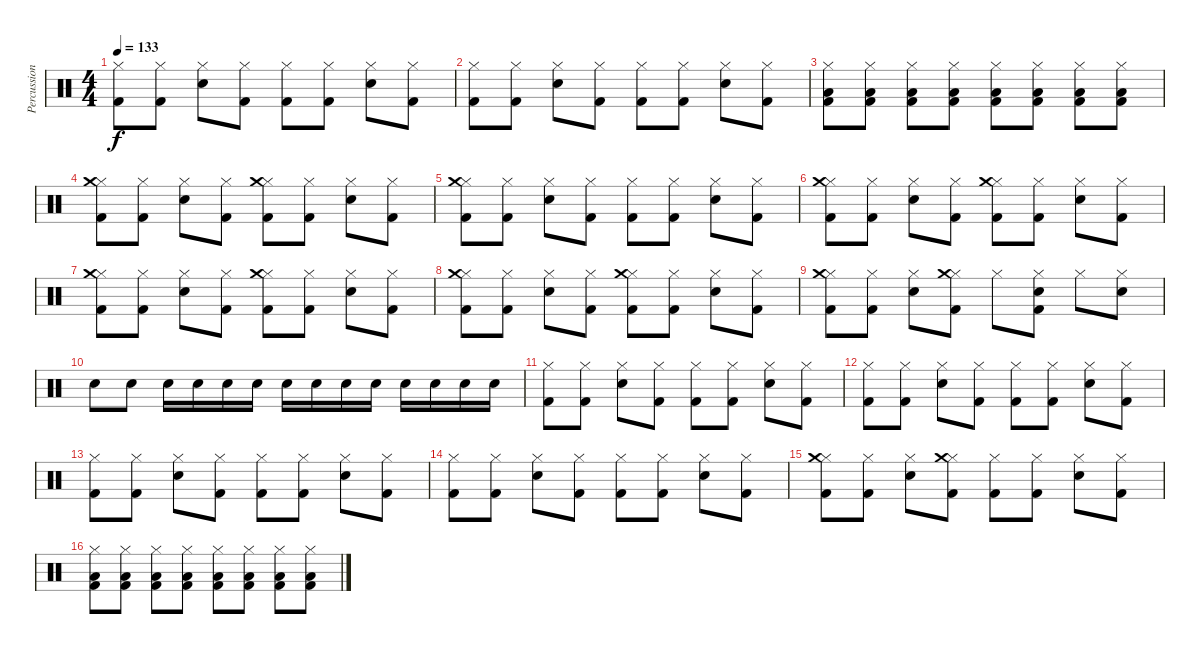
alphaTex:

\track ("Percussion" "Percussion") {instrument percussion}
\staff {score}
\articulation defaults
\ts (4 4)
\tempo 133
\clef neutral
\ks c
("Hi-Hat (closed)" "Kick (hit) 2").8{dy f} ("Hi-Hat (closed)" "Kick (hit) 2").8 ("Electric Snare (hit)" "Hi-Hat (closed)").8 ("Hi-Hat (closed)" "Kick (hit) 2").8 ("Hi-Hat (closed)" "Kick (hit) 2").8 ("Hi-Hat (closed)" "Kick (hit) 2").8 ("Electric Snare (hit)" "Hi-Hat (closed)").8 ("Hi-Hat (closed)" "Kick (hit) 2").8 |
("Hi-Hat (closed)" "Kick (hit) 2").8 ("Hi-Hat (closed)" "Kick (hit) 2").8 ("Electric Snare (hit)" "Hi-Hat (closed)").8 ("Hi-Hat (closed)" "Kick (hit) 2").8 ("Hi-Hat (closed)" "Kick (hit) 2").8 ("Hi-Hat (closed)" "Kick (hit) 2").8 ("Electric Snare (hit)" "Hi-Hat (closed)").8 ("Hi-Hat (closed)" "Kick (hit) 2").8 |
("Hi-Hat (closed)" "Kick (hit) 2" "Low Floor Tom (hit)").8 ("Hi-Hat (closed)" "Kick (hit) 2" "Low Floor Tom (hit)").8 ("Hi-Hat (closed)" "Kick (hit) 2" "Low Floor Tom (hit)").8 ("Hi-Hat (closed)" "Kick (hit) 2" "Low Floor Tom (hit)").8 ("Hi-Hat (closed)" "Kick (hit) 2" "Low Floor Tom (hit)").8 ("Hi-Hat (closed)" "Kick (hit) 2" "Low Floor Tom (hit)").8 ("Hi-Hat (closed)" "Kick (hit) 2" "Low Floor Tom (hit)").8 ("Hi-Hat (closed)" "Kick (hit) 2" "Low Floor Tom (hit)").8 |
("Hi-Hat (closed)" "Kick (hit) 2" "Crash medium (hit)").8 ("Hi-Hat (closed)" "Kick (hit) 2").8 ("Electric Snare (hit)" "Hi-Hat (closed)").8 ("Hi-Hat (closed)" "Kick (hit) 2").8 ("Hi-Hat (closed)" "Kick (hit) 2" "Crash medium (hit)").8 ("Hi-Hat (closed)" "Kick (hit) 2").8 ("Electric Snare (hit)" "Hi-Hat (closed)").8 ("Hi-Hat (closed)" "Kick (hit) 2").8 |
("Hi-Hat (closed)" "Kick (hit) 2" "Crash medium (hit)").8 ("Hi-Hat (closed)" "Kick (hit) 2").8 ("Electric Snare (hit)" "Hi-Hat (closed)").8 ("Hi-Hat (closed)" "Kick (hit) 2").8 ("Hi-Hat (closed)" "Kick (hit) 2").8 ("Hi-Hat (closed)" "Kick (hit) 2").8 ("Electric Snare (hit)" "Hi-Hat (closed)").8 ("Hi-Hat (closed)" "Kick (hit) 2").8 |
("Hi-Hat (closed)" "Kick (hit) 2" "Crash medium (hit)").8 ("Hi-Hat (closed)" "Kick (hit) 2").8 ("Electric Snare (hit)" "Hi-Hat (closed)").8 ("Hi-Hat (closed)" "Kick (hit) 2").8 ("Hi-Hat (closed)" "Kick (hit) 2" "Crash medium (hit)").8 ("Hi-Hat (closed)" "Kick (hit) 2").8 ("Electric Snare (hit)" "Hi-Hat (closed)").8 ("Hi-Hat (closed)" "Kick (hit) 2").8 |
("Hi-Hat (closed)" "Kick (hit) 2" "Crash medium (hit)").8 ("Hi-Hat (closed)" "Kick (hit) 2").8 ("Electric Snare (hit)" "Hi-Hat (closed)").8 ("Hi-Hat (closed)" "Kick (hit) 2").8 ("Hi-Hat (closed)" "Kick (hit) 2" "Crash medium (hit)").8 ("Hi-Hat (closed)" "Kick (hit) 2").8 ("Electric Snare (hit)" "Hi-Hat (closed)").8 ("Hi-Hat (closed)" "Kick (hit) 2").8 |
("Hi-Hat (closed)" "Kick (hit) 2" "Crash medium (hit)").8 ("Hi-Hat (closed)" "Kick (hit) 2").8 ("Electric Snare (hit)" "Hi-Hat (closed)").8 ("Hi-Hat (closed)" "Kick (hit) 2").8 ("Hi-Hat (closed)" "Kick (hit) 2" "Crash medium (hit)").8 ("Hi-Hat (closed)" "Kick (hit) 2").8 ("Electric Snare (hit)" "Hi-Hat (closed)").8 ("Hi-Hat (closed)" "Kick (hit) 2").8 |
("Hi-Hat (closed)" "Kick (hit) 2" "Crash medium (hit)").8 ("Hi-Hat (closed)" "Kick (hit) 2").8 ("Electric Snare (hit)" "Hi-Hat (closed)").8 ("Hi-Hat (closed)" "Kick (hit) 2" "Crash medium (hit)").8 "Hi-Hat (closed)".8 ("Hi-Hat (closed)" "Kick (hit) 2" "Snare (hit) 2").8 "Hi-Hat (closed)".8 ("Hi-Hat (closed)" "Snare (hit) 2").8 |
"Snare (hit) 2".8 "Snare (hit) 2".8 "Snare (hit) 2".16 "Snare (hit) 2".16 "Snare (hit) 2".16 "Snare (hit) 2".16 "Snare (hit) 2".16 "Snare (hit) 2".16 "Snare (hit) 2".16 "Snare (hit) 2".16 "Snare (hit) 2".16 "Snare (hit) 2".16 "Snare (hit) 2".16 "Snare (hit) 2".16 |
("Hi-Hat (closed)" "Kick (hit) 2").8 ("Hi-Hat (closed)" "Kick (hit) 2").8 ("Electric Snare (hit)" "Hi-Hat (closed)").8 ("Hi-Hat (closed)" "Kick (hit) 2").8 ("Hi-Hat (closed)" "Kick (hit) 2").8 ("Hi-Hat (closed)" "Kick (hit) 2").8 ("Electric Snare (hit)" "Hi-Hat (closed)").8 ("Hi-Hat (closed)" "Kick (hit) 2").8 |
("Hi-Hat (closed)" "Kick (hit) 2").8 ("Hi-Hat (closed)" "Kick (hit) 2").8 ("Electric Snare (hit)" "Hi-Hat (closed)").8 ("Hi-Hat (closed)" "Kick (hit) 2").8 ("Hi-Hat (closed)" "Kick (hit) 2").8 ("Hi-Hat (closed)" "Kick (hit) 2").8 ("Electric Snare (hit)" "Hi-Hat (closed)").8 ("Hi-Hat (closed)" "Kick (hit) 2").8 |
("Hi-Hat (closed)" "Kick (hit) 2").8 ("Hi-Hat (closed)" "Kick (hit) 2").8 ("Electric Snare (hit)" "Hi-Hat (closed)").8 ("Hi-Hat (closed)" "Kick (hit) 2").8 ("Hi-Hat (closed)" "Kick (hit) 2").8 ("Hi-Hat (closed)" "Kick (hit) 2").8 ("Electric Snare (hit)" "Hi-Hat (closed)").8 ("Hi-Hat (closed)" "Kick (hit) 2").8 |
("Hi-Hat (closed)" "Kick (hit) 2").8 ("Hi-Hat (closed)" "Kick (hit) 2").8 ("Electric Snare (hit)" "Hi-Hat (closed)").8 ("Hi-Hat (closed)" "Kick (hit) 2").8 ("Hi-Hat (closed)" "Kick (hit) 2").8 ("Hi-Hat (closed)" "Kick (hit) 2").8 ("Electric Snare (hit)" "Hi-Hat (closed)").8 ("Hi-Hat (closed)" "Kick (hit) 2").8 |
("Hi-Hat (closed)" "Kick (hit) 2" "Crash medium (hit)").8 ("Hi-Hat (closed)" "Kick (hit) 2").8 ("Electric Snare (hit)" "Hi-Hat (closed)").8 ("Hi-Hat (closed)" "Kick (hit) 2" "Crash medium (hit)").8 ("Hi-Hat (closed)" "Kick (hit) 2").8 ("Hi-Hat (closed)" "Kick (hit) 2").8 ("Electric Snare (hit)" "Hi-Hat (closed)").8 ("Hi-Hat (closed)" "Kick (hit) 2").8 |
("Hi-Hat (closed)" "Kick (hit) 2" "Low Floor Tom (hit)").8 ("Hi-Hat (closed)" "Kick (hit) 2" "Low Floor Tom (hit)").8 ("Hi-Hat (closed)" "Kick (hit) 2" "Low Floor Tom (hit)").8 ("Hi-Hat (closed)" "Kick (hit) 2" "Low Floor Tom (hit)").8 ("Hi-Hat (closed)" "Kick (hit) 2" "Low Floor Tom (hit)").8 ("Hi-Hat (closed)" "Kick (hit) 2" "Low Floor Tom (hit)").8 ("Hi-Hat (closed)" "Kick (hit) 2" "Low Floor Tom (hit)").8 ("Hi-Hat (closed)" "Kick (hit) 2" "Low Floor Tom (hit)").8
